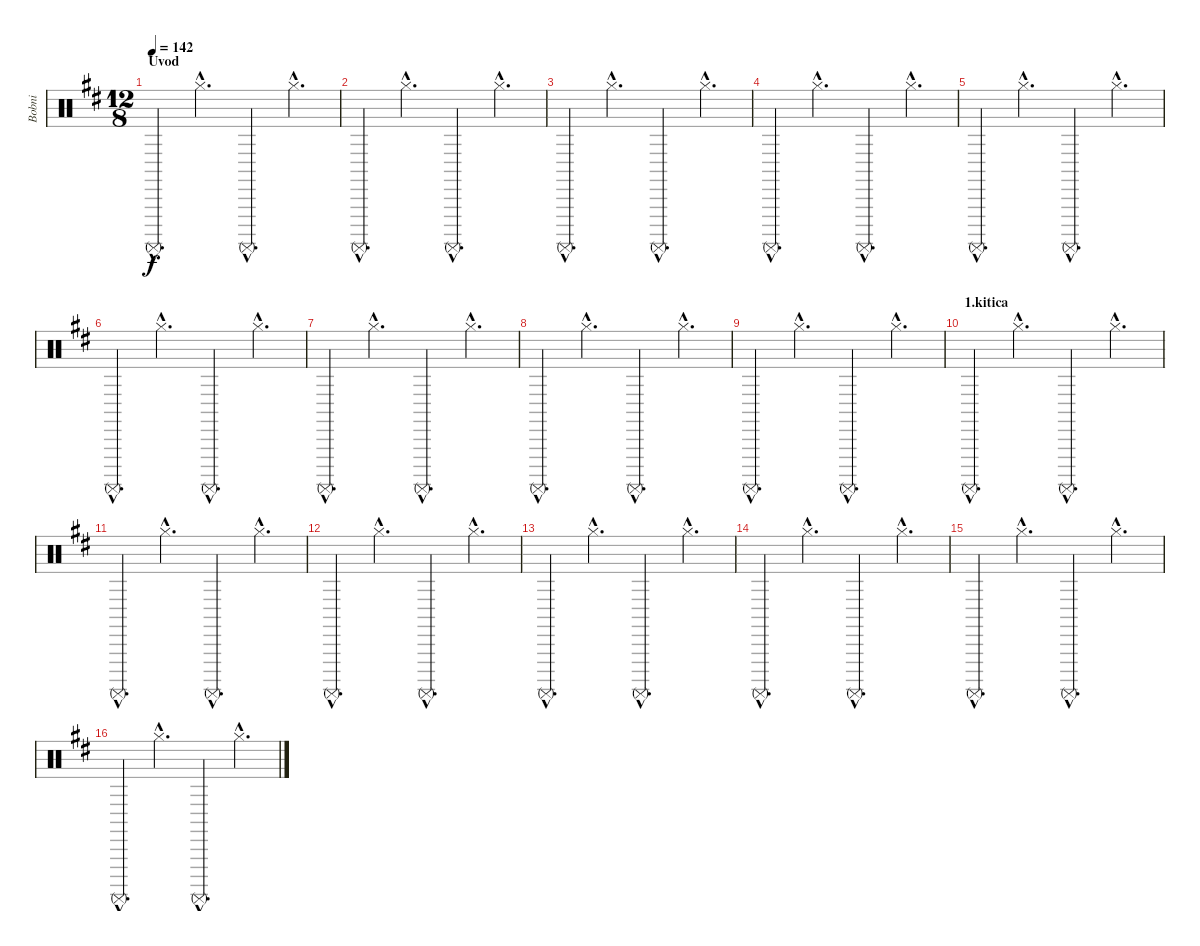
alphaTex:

\track ("Bobni" "Bobni") {instrument percussion}
\staff {score}
\articulation defaults
\ts (12 8)
\section ("" "Uvod")
\tempo 142
\clef neutral
\ks d "Surdo (mute)"{hac}.4{d dy f} "Hi-Hat (closed)"{hac}.4{d} "Surdo (mute)"{hac}.4{d} "Hi-Hat (closed)"{hac}.4{d}
|
"Surdo (mute)"{hac}.4{d} "Hi-Hat (closed)"{hac}.4{d} "Surdo (mute)"{hac}.4{d} "Hi-Hat (closed)"{hac}.4{d} |
"Surdo (mute)"{hac}.4{d} "Hi-Hat (closed)"{hac}.4{d} "Surdo (mute)"{hac}.4{d} "Hi-Hat (closed)"{hac}.4{d} |
"Surdo (mute)"{hac}.4{d} "Hi-Hat (closed)"{hac}.4{d} "Surdo (mute)"{hac}.4{d} "Hi-Hat (closed)"{hac}.4{d} |
"Surdo (mute)"{hac}.4{d} "Hi-Hat (closed)"{hac}.4{d} "Surdo (mute)"{hac}.4{d} "Hi-Hat (closed)"{hac}.4{d} |
"Surdo (mute)"{hac}.4{d} "Hi-Hat (closed)"{hac}.4{d} "Surdo (mute)"{hac}.4{d} "Hi-Hat (closed)"{hac}.4{d} |
"Surdo (mute)"{hac}.4{d} "Hi-Hat (closed)"{hac}.4{d} "Surdo (mute)"{hac}.4{d} "Hi-Hat (closed)"{hac}.4{d} |
"Surdo (mute)"{hac}.4{d} "Hi-Hat (closed)"{hac}.4{d} "Surdo (mute)"{hac}.4{d} "Hi-Hat (closed)"{hac}.4{d} |
"Surdo (mute)"{hac}.4{d} "Hi-Hat (closed)"{hac}.4{d} "Surdo (mute)"{hac}.4{d} "Hi-Hat (closed)"{hac}.4{d} |
\section ("" "1.kitica")
"Surdo (mute)"{hac}.4{d} "Hi-Hat (closed)"{hac}.4{d} "Surdo (mute)"{hac}.4{d} "Hi-Hat (closed)"{hac}.4{d} |
"Surdo (mute)"{hac}.4{d} "Hi-Hat (closed)"{hac}.4{d} "Surdo (mute)"{hac}.4{d} "Hi-Hat (closed)"{hac}.4{d} |
"Surdo (mute)"{hac}.4{d} "Hi-Hat (closed)"{hac}.4{d} "Surdo (mute)"{hac}.4{d} "Hi-Hat (closed)"{hac}.4{d} |
"Surdo (mute)"{hac}.4{d} "Hi-Hat (closed)"{hac}.4{d} "Surdo (mute)"{hac}.4{d} "Hi-Hat (closed)"{hac}.4{d} |
"Surdo (mute)"{hac}.4{d} "Hi-Hat (closed)"{hac}.4{d} "Surdo (mute)"{hac}.4{d} "Hi-Hat (closed)"{hac}.4{d} |
"Surdo (mute)"{hac}.4{d} "Hi-Hat (closed)"{hac}.4{d} "Surdo (mute)"{hac}.4{d} "Hi-Hat (closed)"{hac}.4{d} |
"Surdo (mute)"{hac}.4{d} "Hi-Hat (closed)"{hac}.4{d} "Surdo (mute)"{hac}.4{d} "Hi-Hat (closed)"{hac}.4{d}
